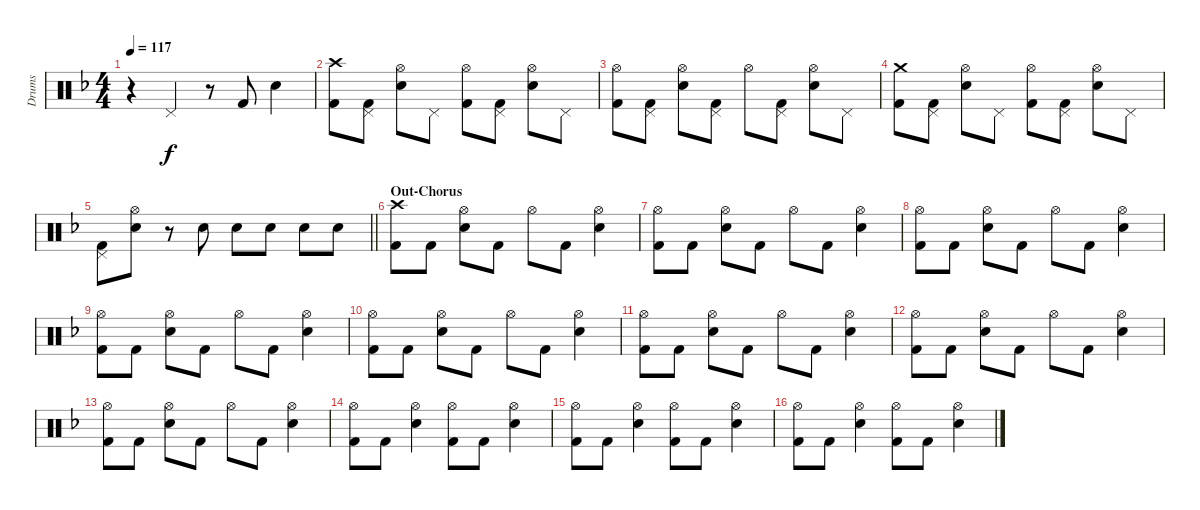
\track ("Drums" "Drums") {instrument percussion}
\staff {score}
\articulation defaults
\ts (4 4)
\tempo 117
\clef neutral
\ks dminor
r.4{dy f} "Pedal Hi-Hat (hit)".4 r.8 "Kick (hit) 2".8 "Snare (hit) 2".4 |
("Kick (hit) 2" "Crash high (hit)").8 ("Pedal Hi-Hat (hit)" "Kick (hit) 2").8 ("Hi-Hat (open)" "Snare (hit) 2").8 "Pedal Hi-Hat (hit)".8 ("Hi-Hat (open)" "Kick (hit) 2").8 ("Pedal Hi-Hat (hit)" "Kick (hit) 2").8 ("Hi-Hat (open)" "Snare (hit) 2").8 "Pedal Hi-Hat (hit)".8 |
("Hi-Hat (open)" "Kick (hit) 2").8 ("Pedal Hi-Hat (hit)" "Kick (hit) 2").8 ("Hi-Hat (open)" "Snare (hit) 2").8 ("Pedal Hi-Hat (hit)" "Kick (hit) 2").8 "Hi-Hat (open)".8 ("Pedal Hi-Hat (hit)" "Kick (hit) 2").8 ("Hi-Hat (open)" "Snare (hit) 2").8 "Pedal Hi-Hat (hit)".8 |
("Kick (hit) 2" "Crash medium (hit)").8 ("Pedal Hi-Hat (hit)" "Kick (hit) 2").8 ("Hi-Hat (open)" "Snare (hit) 2").8 "Pedal Hi-Hat (hit)".8 ("Hi-Hat (open)" "Kick (hit) 2").8 ("Pedal Hi-Hat (hit)" "Kick (hit) 2").8 ("Hi-Hat (open)" "Snare (hit) 2").8 "Pedal Hi-Hat (hit)".8 |
\barLineRight lightlight
("Pedal Hi-Hat (hit)" "Kick (hit) 2").8 ("Hi-Hat (open)" "Snare (hit) 2").8 r.8 "Snare (hit) 2".8 "Snare (hit) 2".8 "Snare (hit) 2".8 "Snare (hit) 2".8 "Snare (hit) 2".8 |
\section ("" "Out-Chorus")
("Kick (hit) 2" "Crash high (hit)").8 "Kick (hit) 2".8 ("Hi-Hat (open)" "Snare (hit) 2").8 "Kick (hit) 2".8 "Hi-Hat (open)".8 "Kick (hit) 2".8 ("Hi-Hat (open)" "Snare (hit) 2").4 |
("Hi-Hat (open)" "Kick (hit) 2").8 "Kick (hit) 2".8 ("Hi-Hat (open)" "Snare (hit) 2").8 "Kick (hit) 2".8 "Hi-Hat (open)".8 "Kick (hit) 2".8 ("Hi-Hat (open)" "Snare (hit) 2").4 |
("Hi-Hat (open)" "Kick (hit) 2").8 "Kick (hit) 2".8 ("Hi-Hat (open)" "Snare (hit) 2").8 "Kick (hit) 2".8 "Hi-Hat (open)".8 "Kick (hit) 2".8 ("Hi-Hat (open)" "Snare (hit) 2").4 |
("Hi-Hat (open)" "Kick (hit) 2").8 "Kick (hit) 2".8 ("Hi-Hat (open)" "Snare (hit) 2").8 "Kick (hit) 2".8 "Hi-Hat (open)".8 "Kick (hit) 2".8 ("Hi-Hat (open)" "Snare (hit) 2").4 |
("Hi-Hat (open)" "Kick (hit) 2").8 "Kick (hit) 2".8 ("Hi-Hat (open)" "Snare (hit) 2").8 "Kick (hit) 2".8 "Hi-Hat (open)".8 "Kick (hit) 2".8 ("Hi-Hat (open)" "Snare (hit) 2").4 |
("Hi-Hat (open)" "Kick (hit) 2").8 "Kick (hit) 2".8 ("Hi-Hat (open)" "Snare (hit) 2").8 "Kick (hit) 2".8 "Hi-Hat (open)".8 "Kick (hit) 2".8 ("Hi-Hat (open)" "Snare (hit) 2").4 |
("Hi-Hat (open)" "Kick (hit) 2").8 "Kick (hit) 2".8 ("Hi-Hat (open)" "Snare (hit) 2").8 "Kick (hit) 2".8 "Hi-Hat (open)".8 "Kick (hit) 2".8 ("Hi-Hat (open)" "Snare (hit) 2").4 |
("Hi-Hat (open)" "Kick (hit) 2").8 "Kick (hit) 2".8 ("Hi-Hat (open)" "Snare (hit) 2").8 "Kick (hit) 2".8 "Hi-Hat (open)".8 "Kick (hit) 2".8 ("Hi-Hat (open)" "Snare (hit) 2").4 |
("Hi-Hat (open)" "Kick (hit) 2").8 "Kick (hit) 2".8 ("Hi-Hat (open)" "Snare (hit) 2").4 ("Hi-Hat (open)" "Kick (hit) 2").8 "Kick (hit) 2".8 ("Hi-Hat (open)" "Snare (hit) 2").4 |
("Hi-Hat (open)" "Kick (hit) 2").8 "Kick (hit) 2".8 ("Hi-Hat (open)" "Snare (hit) 2").4 ("Hi-Hat (open)" "Kick (hit) 2").8 "Kick (hit) 2".8 ("Hi-Hat (open)" "Snare (hit) 2").4 |
("Hi-Hat (open)" "Kick (hit) 2").8 "Kick (hit) 2".8 ("Hi-Hat (open)" "Snare (hit) 2").4 ("Hi-Hat (open)" "Kick (hit) 2").8 "Kick (hit) 2".8 ("Hi-Hat (open)" "Snare (hit) 2").4
